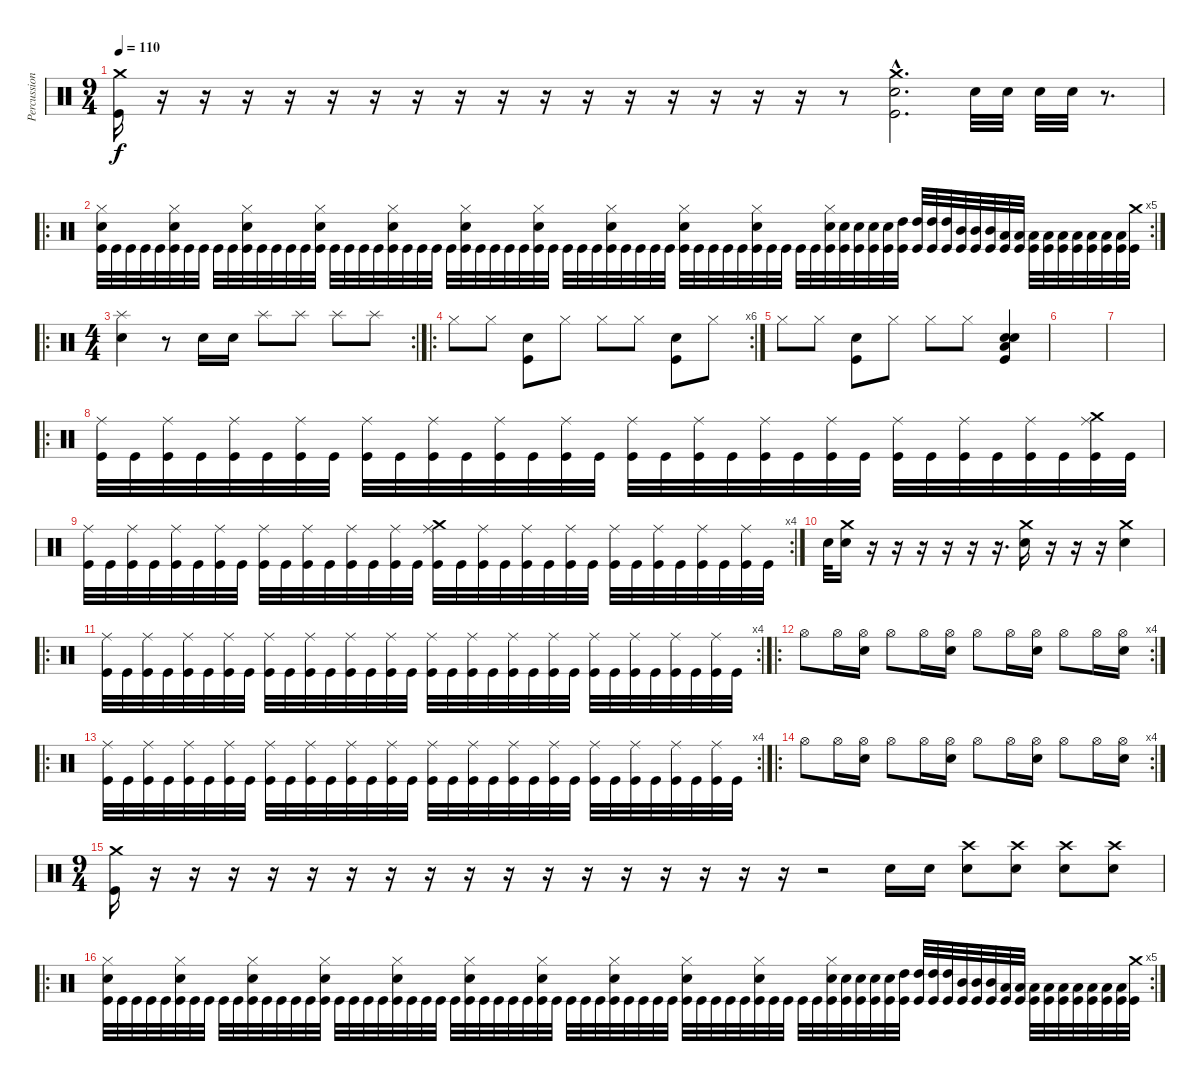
\track ("Percussion" "Percussion") {instrument percussion}
\staff {score}
\articulation defaults
\ts (9 4)
\tempo 110
\clef neutral
\ks c
("Crash medium (hit)" "Kick (hit)").16{dy f} r.16 r.16 r.16 r.16 r.16 r.16 r.16 r.16 r.16 r.16 r.16 r.16 r.16 r.16 r.16 r.16 r.8 ("Kick (hit)"{hac} "Crash medium (hit)"{hac} "Snare (hit) 2"{hac}).2{d} "Snare (hit) 2".32 "Snare (hit) 2".32 "Snare (hit) 2".32 "Snare (hit) 2".32 r.8{d} |
\ro
\rc 5
("Snare (hit) 2" "Hi-Hat (closed)" "Kick (hit)").32 "Kick (hit)".32 "Kick (hit)".32 "Kick (hit)".32 "Kick (hit)".32 ("Snare (hit) 2" "Hi-Hat (closed)" "Kick (hit)").32 "Kick (hit)".32 "Kick (hit)".32 "Kick (hit)".32 "Kick (hit)".32 ("Snare (hit) 2" "Hi-Hat (closed)" "Kick (hit)").32 "Kick (hit)".32 "Kick (hit)".32 "Kick (hit)".32 "Kick (hit)".32 ("Snare (hit) 2" "Hi-Hat (closed)" "Kick (hit)").32 "Kick (hit)".32 "Kick (hit)".32 "Kick (hit)".32 "Kick (hit)".32 ("Snare (hit) 2" "Hi-Hat (closed)" "Kick (hit)").32 "Kick (hit)".32 "Kick (hit)".32 "Kick (hit)".32 "Kick (hit)".32 ("Snare (hit) 2" "Hi-Hat (closed)" "Kick (hit)").32 "Kick (hit)".32 "Kick (hit)".32 "Kick (hit)".32 "Kick (hit)".32 ("Snare (hit) 2" "Hi-Hat (closed)" "Kick (hit)").32 "Kick (hit)".32 "Kick (hit)".32 "Kick (hit)".32 "Kick (hit)".32 ("Snare (hit) 2" "Hi-Hat (closed)" "Kick (hit)").32 "Kick (hit)".32 "Kick (hit)".32 "Kick (hit)".32 "Kick (hit)".32 ("Snare (hit) 2" "Hi-Hat (closed)" "Kick (hit)").32 "Kick (hit)".32 "Kick (hit)".32 "Kick (hit)".32 "Kick (hit)".32 ("Snare (hit) 2" "Hi-Hat (closed)" "Kick (hit)").32 "Kick (hit)".32 "Kick (hit)".32 "Kick (hit)".32 "Kick (hit)".32 ("Snare (hit) 2" "Hi-Hat (closed)" "Kick (hit)").32 ("Snare (hit) 2" "Kick (hit)").32 ("Snare (hit) 2" "Kick (hit)").32 ("Snare (hit) 2" "Kick (hit)").32 ("Snare (hit) 2" "Kick (hit)").32 ("High Tom (hit)" "Kick (hit)").32 ("High Tom (hit)" "Kick (hit)").32 ("High Tom (hit)" "Kick (hit)").32 ("High Tom (hit)" "Kick (hit)").32 ("Mid Tom (hit)" "Kick (hit)").32 ("Mid Tom (hit)" "Kick (hit)").32 ("Mid Tom (hit)" "Kick (hit)").32 ("Low Tom (hit)" "Kick (hit)").32 ("Low Tom (hit)" "Kick (hit)").32 ("Low Tom (hit)" "Kick (hit)").32 ("Low Tom (hit)" "Kick (hit)").32 ("Low Tom (hit)" "Kick (hit)").32 ("Low Floor Tom (hit)" "Kick (hit)").32 ("Low Floor Tom (hit)" "Kick (hit)").32 ("Low Floor Tom (hit)" "Kick (hit)").32 ("Low Floor Tom (hit)" "Kick (hit)").32 ("Crash medium (hit)" "Kick (hit)").32 |
\ro
\rc 2
\ts (4 4)
("Splash (hit)" "Snare (hit) 2").4 r.8 "Snare (hit) 2".16 "Snare (hit) 2".16 "Splash (hit)".8 "Splash (hit)".8 "Splash (hit)".8 "Splash (hit)".8 |
\ro
\rc 6 "Hi-Hat (closed)".8 "Hi-Hat (closed)".8
("Snare (hit) 2" "Kick (hit)").8 "Hi-Hat (closed)".8 "Hi-Hat (closed)".8 "Hi-Hat (closed)".8 ("Snare (hit) 2" "Kick (hit)").8 "Hi-Hat (closed)".8 |
"Hi-Hat (closed)".8 "Hi-Hat (closed)".8 ("Snare (hit) 2" "Kick (hit)").8 "Hi-Hat (closed)".8 "Hi-Hat (closed)".8 "Hi-Hat (closed)".8 ("Kick (hit)" "Low Floor Tom (hit)" "Snare (hit) 2" "Snare (hit) 2").4 |
|
|
\ro
("Ride (middle)" "Kick (hit)").32 "Kick (hit)".32 ("Ride (middle)" "Kick (hit)").32 "Kick (hit)".32 ("Ride (middle)" "Kick (hit)").32 "Kick (hit)".32 ("Ride (middle)" "Kick (hit)").32 "Kick (hit)".32 ("Ride (middle)" "Kick (hit)").32 "Kick (hit)".32 ("Ride (middle)" "Kick (hit)").32 "Kick (hit)".32 ("Ride (middle)" "Kick (hit)").32 "Kick (hit)".32 ("Ride (middle)" "Kick (hit)").32 "Kick (hit)".32 ("Ride (middle)" "Kick (hit)").32 "Kick (hit)".32 ("Ride (middle)" "Kick (hit)").32 "Kick (hit)".32 ("Ride (middle)" "Kick (hit)").32 "Kick (hit)".32 ("Ride (middle)" "Kick (hit)").32 "Kick (hit)".32 ("Ride (middle)" "Kick (hit)").32 "Kick (hit)".32 ("Ride (middle)" "Kick (hit)").32 "Kick (hit)".32 ("Ride (middle)" "Kick (hit)").32 "Kick (hit)".32 ("Crash medium (hit)" "Ride (middle)" "Kick (hit)").32 "Kick (hit)".32 |
\rc 4
("Ride (middle)" "Kick (hit)").32 "Kick (hit)".32 ("Ride (middle)" "Kick (hit)").32 "Kick (hit)".32 ("Ride (middle)" "Kick (hit)").32 "Kick (hit)".32 ("Ride (middle)" "Kick (hit)").32 "Kick (hit)".32 ("Ride (middle)" "Kick (hit)").32 "Kick (hit)".32 ("Ride (middle)" "Kick (hit)").32 "Kick (hit)".32 ("Ride (middle)" "Kick (hit)").32 "Kick (hit)".32 ("Ride (middle)" "Kick (hit)").32 "Kick (hit)".32 ("Crash medium (hit)" "Ride (middle)" "Kick (hit)").32 "Kick (hit)".32 ("Ride (middle)" "Kick (hit)").32 "Kick (hit)".32 ("Ride (middle)" "Kick (hit)").32 "Kick (hit)".32 ("Ride (middle)" "Kick (hit)").32 "Kick (hit)".32 ("Ride (middle)" "Kick (hit)").32 "Kick (hit)".32 ("Ride (middle)" "Kick (hit)").32 "Kick (hit)".32 ("Ride (middle)" "Kick (hit)").32 "Kick (hit)".32 ("Ride (middle)" "Kick (hit)").32 "Kick (hit)".32 |
"Snare (hit) 2".32 ("Crash medium (hit)" "Snare (hit) 2").16 r.16 r.16 r.16 r.16 r.16 r.16{d} ("Crash medium (hit)" "Snare (hit) 2").16 r.16 r.16 r.16 ("Crash medium (hit)" "Snare (hit) 2").4 |
\ro
\rc 4
("Ride (middle)" "Kick (hit)").32 "Kick (hit)".32 ("Ride (middle)" "Kick (hit)").32 "Kick (hit)".32 ("Ride (middle)" "Kick (hit)").32 "Kick (hit)".32 ("Ride (middle)" "Kick (hit)").32 "Kick (hit)".32 ("Ride (middle)" "Kick (hit)").32 "Kick (hit)".32 ("Ride (middle)" "Kick (hit)").32 "Kick (hit)".32 ("Ride (middle)" "Kick (hit)").32 "Kick (hit)".32 ("Ride (middle)" "Kick (hit)").32 "Kick (hit)".32 ("Ride (middle)" "Kick (hit)").32 "Kick (hit)".32 ("Ride (middle)" "Kick (hit)").32 "Kick (hit)".32 ("Ride (middle)" "Kick (hit)").32 "Kick (hit)".32 ("Ride (middle)" "Kick (hit)").32 "Kick (hit)".32 ("Ride (middle)" "Kick (hit)").32 "Kick (hit)".32 ("Ride (middle)" "Kick (hit)").32 "Kick (hit)".32 ("Ride (middle)" "Kick (hit)").32 "Kick (hit)".32 ("Ride (middle)" "Kick (hit)").32 "Kick (hit)".32 |
\ro
\rc 4 "Hi-Hat (open)".8 "Hi-Hat (open)".16
("Snare (hit) 2" "Hi-Hat (open)").16 "Hi-Hat (open)".8 "Hi-Hat (open)".16 ("Snare (hit) 2" "Hi-Hat (open)").16 "Hi-Hat (open)".8 "Hi-Hat (open)".16 ("Snare (hit) 2" "Hi-Hat (open)").16 "Hi-Hat (open)".8 "Hi-Hat (open)".16 ("Snare (hit) 2" "Hi-Hat (open)").16 |
\ro
\rc 4
("Ride (middle)" "Kick (hit)").32 "Kick (hit)".32 ("Ride (middle)" "Kick (hit)").32 "Kick (hit)".32 ("Ride (middle)" "Kick (hit)").32 "Kick (hit)".32 ("Ride (middle)" "Kick (hit)").32 "Kick (hit)".32 ("Ride (middle)" "Kick (hit)").32 "Kick (hit)".32 ("Ride (middle)" "Kick (hit)").32 "Kick (hit)".32 ("Ride (middle)" "Kick (hit)").32 "Kick (hit)".32 ("Ride (middle)" "Kick (hit)").32 "Kick (hit)".32 ("Ride (middle)" "Kick (hit)").32 "Kick (hit)".32 ("Ride (middle)" "Kick (hit)").32 "Kick (hit)".32 ("Ride (middle)" "Kick (hit)").32 "Kick (hit)".32 ("Ride (middle)" "Kick (hit)").32 "Kick (hit)".32 ("Ride (middle)" "Kick (hit)").32 "Kick (hit)".32 ("Ride (middle)" "Kick (hit)").32 "Kick (hit)".32 ("Ride (middle)" "Kick (hit)").32 "Kick (hit)".32 ("Ride (middle)" "Kick (hit)").32 "Kick (hit)".32 |
\ro
\rc 4 "Hi-Hat (open)".8 "Hi-Hat (open)".16
("Snare (hit) 2" "Hi-Hat (open)").16 "Hi-Hat (open)".8 "Hi-Hat (open)".16 ("Snare (hit) 2" "Hi-Hat (open)").16 "Hi-Hat (open)".8 "Hi-Hat (open)".16 ("Snare (hit) 2" "Hi-Hat (open)").16 "Hi-Hat (open)".8 "Hi-Hat (open)".16 ("Snare (hit) 2" "Hi-Hat (open)").16 |
\ts (9 4)
("Crash medium (hit)" "Kick (hit)").16 r.16 r.16 r.16 r.16 r.16 r.16 r.16 r.16 r.16 r.16 r.16 r.16 r.16 r.16 r.16 r.16 r.16 r.2 "Snare (hit) 2".16 "Snare (hit) 2".16 ("Crash high (hit)" "Snare (hit) 2").8 ("Crash high (hit)" "Snare (hit) 2").8 ("Crash high (hit)" "Snare (hit) 2").8 ("Crash high (hit)" "Snare (hit) 2").8 |
\ro
\rc 5
("Snare (hit) 2" "Hi-Hat (closed)" "Kick (hit)").32 "Kick (hit)".32 "Kick (hit)".32 "Kick (hit)".32 "Kick (hit)".32 ("Snare (hit) 2" "Hi-Hat (closed)" "Kick (hit)").32 "Kick (hit)".32 "Kick (hit)".32 "Kick (hit)".32 "Kick (hit)".32 ("Snare (hit) 2" "Hi-Hat (closed)" "Kick (hit)").32 "Kick (hit)".32 "Kick (hit)".32 "Kick (hit)".32 "Kick (hit)".32 ("Snare (hit) 2" "Hi-Hat (closed)" "Kick (hit)").32 "Kick (hit)".32 "Kick (hit)".32 "Kick (hit)".32 "Kick (hit)".32 ("Snare (hit) 2" "Hi-Hat (closed)" "Kick (hit)").32 "Kick (hit)".32 "Kick (hit)".32 "Kick (hit)".32 "Kick (hit)".32 ("Snare (hit) 2" "Hi-Hat (closed)" "Kick (hit)").32 "Kick (hit)".32 "Kick (hit)".32 "Kick (hit)".32 "Kick (hit)".32 ("Snare (hit) 2" "Hi-Hat (closed)" "Kick (hit)").32 "Kick (hit)".32 "Kick (hit)".32 "Kick (hit)".32 "Kick (hit)".32 ("Snare (hit) 2" "Hi-Hat (closed)" "Kick (hit)").32 "Kick (hit)".32 "Kick (hit)".32 "Kick (hit)".32 "Kick (hit)".32 ("Snare (hit) 2" "Hi-Hat (closed)" "Kick (hit)").32 "Kick (hit)".32 "Kick (hit)".32 "Kick (hit)".32 "Kick (hit)".32 ("Snare (hit) 2" "Hi-Hat (closed)" "Kick (hit)").32 "Kick (hit)".32 "Kick (hit)".32 "Kick (hit)".32 "Kick (hit)".32 ("Snare (hit) 2" "Hi-Hat (closed)" "Kick (hit)").32 ("Snare (hit) 2" "Kick (hit)").32 ("Snare (hit) 2" "Kick (hit)").32 ("Snare (hit) 2" "Kick (hit)").32 ("Snare (hit) 2" "Kick (hit)").32 ("High Tom (hit)" "Kick (hit)").32 ("High Tom (hit)" "Kick (hit)").32 ("High Tom (hit)" "Kick (hit)").32 ("High Tom (hit)" "Kick (hit)").32 ("Mid Tom (hit)" "Kick (hit)").32 ("Mid Tom (hit)" "Kick (hit)").32 ("Mid Tom (hit)" "Kick (hit)").32 ("Low Tom (hit)" "Kick (hit)").32 ("Low Tom (hit)" "Kick (hit)").32 ("Low Tom (hit)" "Kick (hit)").32 ("Low Tom (hit)" "Kick (hit)").32 ("Low Tom (hit)" "Kick (hit)").32 ("Low Floor Tom (hit)" "Kick (hit)").32 ("Low Floor Tom (hit)" "Kick (hit)").32 ("Low Floor Tom (hit)" "Kick (hit)").32 ("Low Floor Tom (hit)" "Kick (hit)").32 ("Crash medium (hit)" "Kick (hit)").32
